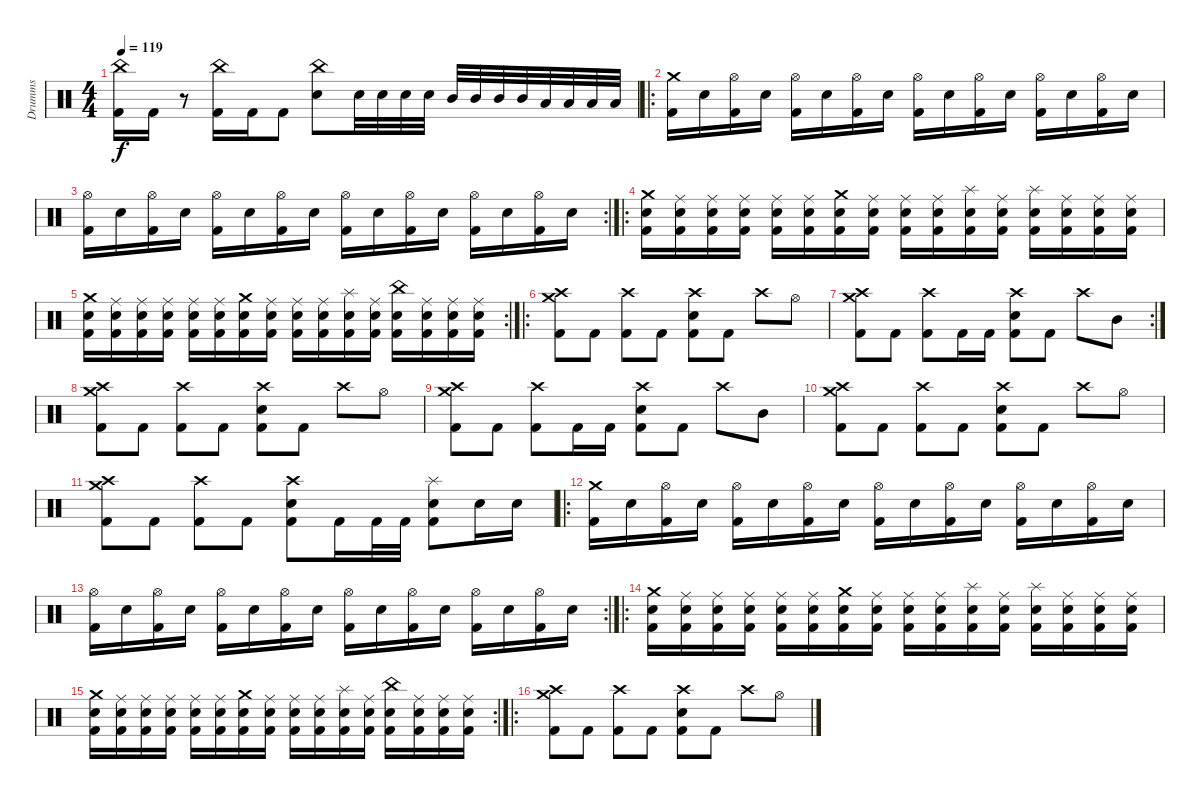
\track ("Drumms" "Drumms") {instrument percussion}
\staff {score}
\articulation defaults
\ts (4 4)
\tempo 119
\clef neutral
\ks c
("China (hit)" "Kick (hit) 2").16{dy f} "Kick (hit) 2".16 r.8 ("China (hit)" "Kick (hit) 2").16 "Kick (hit) 2".16 "Kick (hit) 2".8 ("China (hit)" "Electric Snare (hit)").8 "Electric Snare (hit)".32 "Electric Snare (hit)".32 "Electric Snare (hit)".32 "Electric Snare (hit)".32 "Mid Tom (hit)".32 "Mid Tom (hit)".32 "Mid Tom (hit)".32 "Mid Tom (hit)".32 "Low Tom (hit)".32 "Low Tom (hit)".32 "Low Tom (hit)".32 "Low Tom (hit)".32 |
\ro
("Crash medium (hit)" "Kick (hit) 2").16 "Electric Snare (hit)".16 ("Hi-Hat (open)" "Kick (hit) 2").16 "Electric Snare (hit)".16 ("Hi-Hat (open)" "Kick (hit) 2").16 "Electric Snare (hit)".16 ("Hi-Hat (open)" "Kick (hit) 2").16 "Electric Snare (hit)".16 ("Hi-Hat (open)" "Kick (hit) 2").16 "Electric Snare (hit)".16 ("Hi-Hat (open)" "Kick (hit) 2").16 "Electric Snare (hit)".16 ("Hi-Hat (open)" "Kick (hit) 2").16 "Electric Snare (hit)".16 ("Hi-Hat (open)" "Kick (hit) 2").16 "Electric Snare (hit)".16 |
\rc 2
("Hi-Hat (open)" "Kick (hit) 2").16 "Electric Snare (hit)".16 ("Hi-Hat (open)" "Kick (hit) 2").16 "Electric Snare (hit)".16 ("Hi-Hat (open)" "Kick (hit) 2").16 "Electric Snare (hit)".16 ("Hi-Hat (open)" "Kick (hit) 2").16 "Electric Snare (hit)".16 ("Hi-Hat (open)" "Kick (hit) 2").16 "Electric Snare (hit)".16 ("Hi-Hat (open)" "Kick (hit) 2").16 "Electric Snare (hit)".16 ("Hi-Hat (open)" "Kick (hit) 2").16 "Electric Snare (hit)".16 ("Hi-Hat (open)" "Kick (hit) 2").16 "Electric Snare (hit)".16 |
\ro
("Crash medium (hit)" "Electric Snare (hit)" "Kick (hit) 2").16 ("Ride (middle)" "Electric Snare (hit)" "Kick (hit) 2").16 ("Ride (middle)" "Electric Snare (hit)" "Kick (hit) 2").16 ("Ride (middle)" "Electric Snare (hit)" "Kick (hit) 2").16 ("Ride (middle)" "Electric Snare (hit)" "Kick (hit) 2").16 ("Ride (middle)" "Electric Snare (hit)" "Kick (hit) 2").16 ("Crash medium (hit)" "Electric Snare (hit)" "Kick (hit) 2").16 ("Ride (middle)" "Electric Snare (hit)" "Kick (hit) 2").16 ("Ride (middle)" "Electric Snare (hit)" "Kick (hit) 2").16 ("Ride (middle)" "Electric Snare (hit)" "Kick (hit) 2").16 ("Splash (hit)" "Electric Snare (hit)" "Kick (hit) 2").16 ("Ride (middle)" "Electric Snare (hit)" "Kick (hit) 2").16 ("Splash (hit)" "Electric Snare (hit)" "Kick (hit) 2").16 ("Ride (middle)" "Electric Snare (hit)" "Kick (hit) 2").16 ("Ride (middle)" "Electric Snare (hit)" "Kick (hit) 2").16 ("Ride (middle)" "Electric Snare (hit)" "Kick (hit) 2").16 |
\rc 2
("Crash medium (hit)" "Electric Snare (hit)" "Kick (hit) 2").16 ("Ride (middle)" "Electric Snare (hit)" "Kick (hit) 2").16 ("Ride (middle)" "Electric Snare (hit)" "Kick (hit) 2").16 ("Ride (middle)" "Electric Snare (hit)" "Kick (hit) 2").16 ("Ride (middle)" "Electric Snare (hit)" "Kick (hit) 2").16 ("Ride (middle)" "Electric Snare (hit)" "Kick (hit) 2").16 ("Crash medium (hit)" "Electric Snare (hit)" "Kick (hit) 2").16 ("Ride (middle)" "Electric Snare (hit)" "Kick (hit) 2").16 ("Ride (middle)" "Electric Snare (hit)" "Kick (hit) 2").16 ("Ride (middle)" "Electric Snare (hit)" "Kick (hit) 2").16 ("Splash (hit)" "Electric Snare (hit)" "Kick (hit) 2").16 ("Ride (middle)" "Electric Snare (hit)" "Kick (hit) 2").16 ("China (hit)" "Electric Snare (hit)" "Kick (hit) 2").16 ("Ride (middle)" "Electric Snare (hit)" "Kick (hit) 2").16 ("Ride (middle)" "Electric Snare (hit)" "Kick (hit) 2").16 ("Ride (middle)" "Electric Snare (hit)" "Kick (hit) 2").16 |
\ro
("Crash high (hit)" "Crash medium (hit)" "Kick (hit) 2").8 "Kick (hit) 2".8 ("Crash high (hit)" "Kick (hit) 2").8 "Kick (hit) 2".8 ("Crash high (hit)" "Electric Snare (hit)" "Kick (hit) 2").8 "Kick (hit) 2".8 "Crash high (hit)".8 "Hi-Hat (open)".8 |
\rc 2
("Crash high (hit)" "Crash medium (hit)" "Kick (hit) 2").8 "Kick (hit) 2".8 ("Crash high (hit)" "Kick (hit) 2").8 "Kick (hit) 2".16 "Kick (hit) 2".16 ("Crash high (hit)" "Electric Snare (hit)" "Kick (hit) 2").8 "Kick (hit) 2".8 "Crash high (hit)".8 "Mid Tom (hit)".8 |
("Crash high (hit)" "Crash medium (hit)" "Kick (hit) 2").8 "Kick (hit) 2".8 ("Crash high (hit)" "Kick (hit) 2").8 "Kick (hit) 2".8 ("Crash high (hit)" "Electric Snare (hit)" "Kick (hit) 2").8 "Kick (hit) 2".8 "Crash high (hit)".8 "Hi-Hat (open)".8 |
("Crash high (hit)" "Crash medium (hit)" "Kick (hit) 2").8 "Kick (hit) 2".8 ("Crash high (hit)" "Kick (hit) 2").8 "Kick (hit) 2".16 "Kick (hit) 2".16 ("Crash high (hit)" "Electric Snare (hit)" "Kick (hit) 2").8 "Kick (hit) 2".8 "Crash high (hit)".8 "Mid Tom (hit)".8 |
("Crash high (hit)" "Crash medium (hit)" "Kick (hit) 2").8 "Kick (hit) 2".8 ("Crash high (hit)" "Kick (hit) 2").8 "Kick (hit) 2".8 ("Crash high (hit)" "Electric Snare (hit)" "Kick (hit) 2").8 "Kick (hit) 2".8 "Crash high (hit)".8 "Hi-Hat (open)".8 |
("Crash high (hit)" "Crash medium (hit)" "Kick (hit) 2").8 "Kick (hit) 2".8 ("Crash high (hit)" "Kick (hit) 2").8 "Kick (hit) 2".8 ("Crash high (hit)" "Electric Snare (hit)" "Kick (hit) 2").8 "Kick (hit) 2".16 "Kick (hit) 2".32 "Kick (hit) 2".32 ("Splash (hit)" "Electric Snare (hit)" "Kick (hit) 2").8 "Electric Snare (hit)".16 "Electric Snare (hit)".16 |
\ro
("Crash medium (hit)" "Kick (hit) 2").16 "Electric Snare (hit)".16 ("Hi-Hat (open)" "Kick (hit) 2").16 "Electric Snare (hit)".16 ("Hi-Hat (open)" "Kick (hit) 2").16 "Electric Snare (hit)".16 ("Hi-Hat (open)" "Kick (hit) 2").16 "Electric Snare (hit)".16 ("Hi-Hat (open)" "Kick (hit) 2").16 "Electric Snare (hit)".16 ("Hi-Hat (open)" "Kick (hit) 2").16 "Electric Snare (hit)".16 ("Hi-Hat (open)" "Kick (hit) 2").16 "Electric Snare (hit)".16 ("Hi-Hat (open)" "Kick (hit) 2").16 "Electric Snare (hit)".16 |
\rc 2
("Hi-Hat (open)" "Kick (hit) 2").16 "Electric Snare (hit)".16 ("Hi-Hat (open)" "Kick (hit) 2").16 "Electric Snare (hit)".16 ("Hi-Hat (open)" "Kick (hit) 2").16 "Electric Snare (hit)".16 ("Hi-Hat (open)" "Kick (hit) 2").16 "Electric Snare (hit)".16 ("Hi-Hat (open)" "Kick (hit) 2").16 "Electric Snare (hit)".16 ("Hi-Hat (open)" "Kick (hit) 2").16 "Electric Snare (hit)".16 ("Hi-Hat (open)" "Kick (hit) 2").16 "Electric Snare (hit)".16 ("Hi-Hat (open)" "Kick (hit) 2").16 "Electric Snare (hit)".16 |
\ro
("Crash medium (hit)" "Electric Snare (hit)" "Kick (hit) 2").16 ("Ride (middle)" "Electric Snare (hit)" "Kick (hit) 2").16 ("Ride (middle)" "Electric Snare (hit)" "Kick (hit) 2").16 ("Ride (middle)" "Electric Snare (hit)" "Kick (hit) 2").16 ("Ride (middle)" "Electric Snare (hit)" "Kick (hit) 2").16 ("Ride (middle)" "Electric Snare (hit)" "Kick (hit) 2").16 ("Crash medium (hit)" "Electric Snare (hit)" "Kick (hit) 2").16 ("Ride (middle)" "Electric Snare (hit)" "Kick (hit) 2").16 ("Ride (middle)" "Electric Snare (hit)" "Kick (hit) 2").16 ("Ride (middle)" "Electric Snare (hit)" "Kick (hit) 2").16 ("Splash (hit)" "Electric Snare (hit)" "Kick (hit) 2").16 ("Ride (middle)" "Electric Snare (hit)" "Kick (hit) 2").16 ("Splash (hit)" "Electric Snare (hit)" "Kick (hit) 2").16 ("Ride (middle)" "Electric Snare (hit)" "Kick (hit) 2").16 ("Ride (middle)" "Electric Snare (hit)" "Kick (hit) 2").16 ("Ride (middle)" "Electric Snare (hit)" "Kick (hit) 2").16 |
\rc 2
("Crash medium (hit)" "Electric Snare (hit)" "Kick (hit) 2").16 ("Ride (middle)" "Electric Snare (hit)" "Kick (hit) 2").16 ("Ride (middle)" "Electric Snare (hit)" "Kick (hit) 2").16 ("Ride (middle)" "Electric Snare (hit)" "Kick (hit) 2").16 ("Ride (middle)" "Electric Snare (hit)" "Kick (hit) 2").16 ("Ride (middle)" "Electric Snare (hit)" "Kick (hit) 2").16 ("Crash medium (hit)" "Electric Snare (hit)" "Kick (hit) 2").16 ("Ride (middle)" "Electric Snare (hit)" "Kick (hit) 2").16 ("Ride (middle)" "Electric Snare (hit)" "Kick (hit) 2").16 ("Ride (middle)" "Electric Snare (hit)" "Kick (hit) 2").16 ("Splash (hit)" "Electric Snare (hit)" "Kick (hit) 2").16 ("Ride (middle)" "Electric Snare (hit)" "Kick (hit) 2").16 ("China (hit)" "Electric Snare (hit)" "Kick (hit) 2").16 ("Ride (middle)" "Electric Snare (hit)" "Kick (hit) 2").16 ("Ride (middle)" "Electric Snare (hit)" "Kick (hit) 2").16 ("Ride (middle)" "Electric Snare (hit)" "Kick (hit) 2").16 |
\ro
("Crash high (hit)" "Crash medium (hit)" "Kick (hit) 2").8 "Kick (hit) 2".8 ("Crash high (hit)" "Kick (hit) 2").8 "Kick (hit) 2".8 ("Crash high (hit)" "Electric Snare (hit)" "Kick (hit) 2").8 "Kick (hit) 2".8 "Crash high (hit)".8 "Hi-Hat (open)".8
